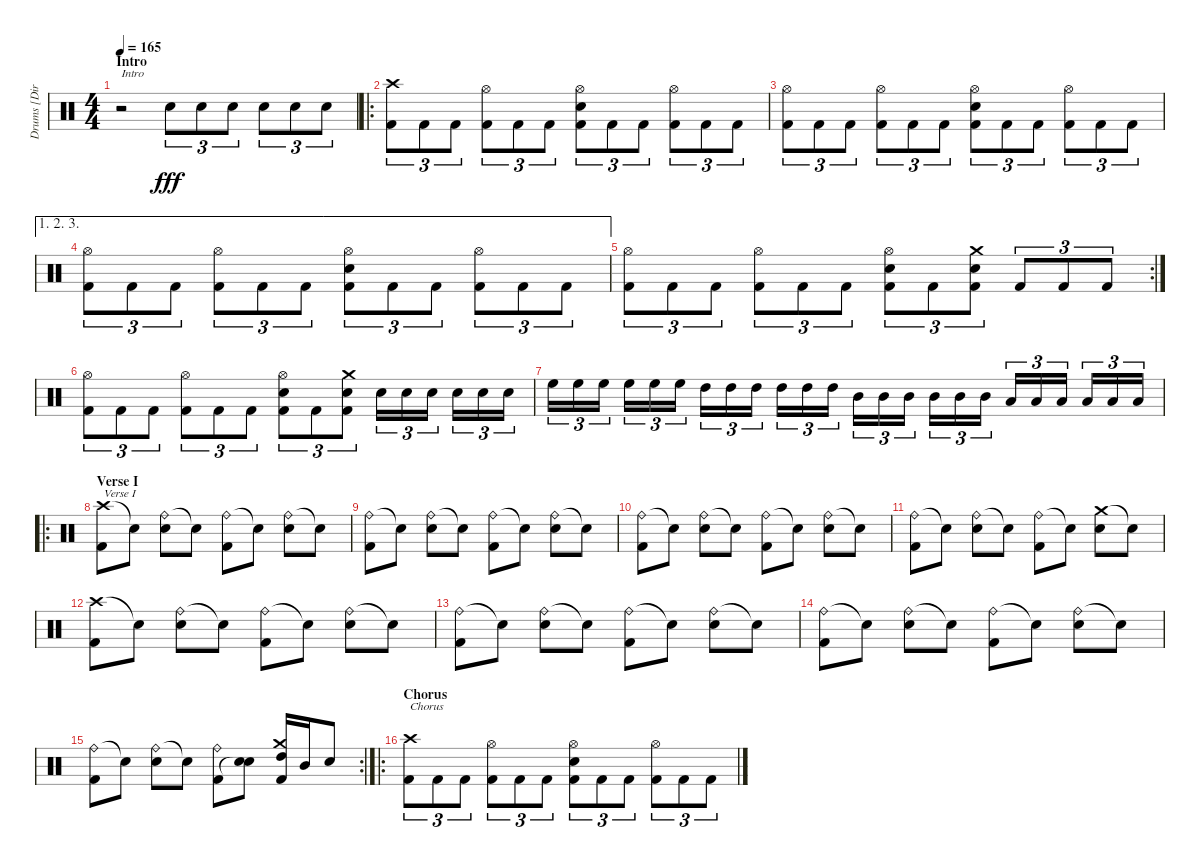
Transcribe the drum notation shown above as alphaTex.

\track ("Drums [Dirge Rep]" "Drums [Dir") {instrument percussion}
\staff {score}
\articulation defaults
\ts (4 4)
\section ("" "Intro")
\tempo 165
\clef neutral
\ks c
r.2{txt "Intro" dy fff} "Electric Snare (hit)".8{tu (3 2)} "Electric Snare (hit)".8{tu (3 2)} "Electric Snare (hit)".8{tu (3 2)} "Electric Snare (hit)".8{tu (3 2)} "Electric Snare (hit)".8{tu (3 2)} "Electric Snare (hit)".8{tu (3 2)} |
\ro
("Crash high (hit)" "Kick (hit) 2").8{tu (3 2)} "Kick (hit) 2".8{tu (3 2)} "Kick (hit) 2".8{tu (3 2)} ("Hi-Hat (open)" "Kick (hit) 2").8{tu (3 2)} "Kick (hit) 2".8{tu (3 2)} "Kick (hit) 2".8{tu (3 2)} ("Hi-Hat (open)" "Electric Snare (hit)" "Kick (hit) 2").8{tu (3 2)} "Kick (hit) 2".8{tu (3 2)} "Kick (hit) 2".8{tu (3 2)} ("Hi-Hat (open)" "Kick (hit) 2").8{tu (3 2)} "Kick (hit) 2".8{tu (3 2)} "Kick (hit) 2".8{tu (3 2)} |
("Hi-Hat (open)" "Kick (hit) 2").8{tu (3 2)} "Kick (hit) 2".8{tu (3 2)} "Kick (hit) 2".8{tu (3 2)} ("Hi-Hat (open)" "Kick (hit) 2").8{tu (3 2)} "Kick (hit) 2".8{tu (3 2)} "Kick (hit) 2".8{tu (3 2)} ("Hi-Hat (open)" "Electric Snare (hit)" "Kick (hit) 2").8{tu (3 2)} "Kick (hit) 2".8{tu (3 2)} "Kick (hit) 2".8{tu (3 2)} ("Hi-Hat (open)" "Kick (hit) 2").8{tu (3 2)} "Kick (hit) 2".8{tu (3 2)} "Kick (hit) 2".8{tu (3 2)} |
\ae (1 2 3)
("Hi-Hat (open)" "Kick (hit) 2").8{tu (3 2)} "Kick (hit) 2".8{tu (3 2)} "Kick (hit) 2".8{tu (3 2)} ("Hi-Hat (open)" "Kick (hit) 2").8{tu (3 2)} "Kick (hit) 2".8{tu (3 2)} "Kick (hit) 2".8{tu (3 2)} ("Hi-Hat (open)" "Electric Snare (hit)" "Kick (hit) 2").8{tu (3 2)} "Kick (hit) 2".8{tu (3 2)} "Kick (hit) 2".8{tu (3 2)} ("Hi-Hat (open)" "Kick (hit) 2").8{tu (3 2)} "Kick (hit) 2".8{tu (3 2)} "Kick (hit) 2".8{tu (3 2)} |
\rc 2
("Hi-Hat (open)" "Kick (hit) 2").8{tu (3 2)} "Kick (hit) 2".8{tu (3 2)} "Kick (hit) 2".8{tu (3 2)} ("Hi-Hat (open)" "Kick (hit) 2").8{tu (3 2)} "Kick (hit) 2".8{tu (3 2)} "Kick (hit) 2".8{tu (3 2)} ("Hi-Hat (open)" "Electric Snare (hit)" "Kick (hit) 2").8{tu (3 2)} "Kick (hit) 2".8{tu (3 2)} ("Crash medium (hit)" "Electric Snare (hit)" "Kick (hit) 2").8{tu (3 2)} "Kick (hit) 2".8{tu (3 2)} "Kick (hit) 2".8{tu (3 2)} "Kick (hit) 2".8{tu (3 2)} |
("Hi-Hat (open)" "Kick (hit) 2").8{tu (3 2)} "Kick (hit) 2".8{tu (3 2)} "Kick (hit) 2".8{tu (3 2)} ("Hi-Hat (open)" "Kick (hit) 2").8{tu (3 2)} "Kick (hit) 2".8{tu (3 2)} "Kick (hit) 2".8{tu (3 2)} ("Hi-Hat (open)" "Electric Snare (hit)" "Kick (hit) 2").8{tu (3 2)} "Kick (hit) 2".8{tu (3 2)} ("Crash medium (hit)" "Electric Snare (hit)" "Kick (hit) 2").8{tu (3 2)} "Electric Snare (hit)".16{tu (3 2)} "Electric Snare (hit)".16{tu (3 2)} "Electric Snare (hit)".16{tu (3 2)} "Electric Snare (hit)".16{tu (3 2)} "Electric Snare (hit)".16{tu (3 2)} "Electric Snare (hit)".16{tu (3 2)} |
"High Floor Tom (hit)".16{tu (3 2)} "High Floor Tom (hit)".16{tu (3 2)} "High Floor Tom (hit)".16{tu (3 2)} "High Floor Tom (hit)".16{tu (3 2)} "High Floor Tom (hit)".16{tu (3 2)} "High Floor Tom (hit)".16{tu (3 2)} "High Tom (hit)".16{tu (3 2)} "High Tom (hit)".16{tu (3 2)} "High Tom (hit)".16{tu (3 2)} "High Tom (hit)".16{tu (3 2)} "High Tom (hit)".16{tu (3 2)} "High Tom (hit)".16{tu (3 2)} "Mid Tom (hit)".16{tu (3 2)} "Mid Tom (hit)".16{tu (3 2)} "Mid Tom (hit)".16{tu (3 2)} "Mid Tom (hit)".16{tu (3 2)} "Mid Tom (hit)".16{tu (3 2)} "Mid Tom (hit)".16{tu (3 2)} "Low Tom (hit)".16{tu (3 2)} "Low Tom (hit)".16{tu (3 2)} "Low Tom (hit)".16{tu (3 2)} "Low Tom (hit)".16{tu (3 2)} "Low Tom (hit)".16{tu (3 2)} "Low Tom (hit)".16{tu (3 2)} |
\ro
\section ("" "Verse I")
("Crash high (hit)" "Kick (hit) 2").8{txt "Verse I"} "Snare (hit)"{t}.8 ("Ride (bell)" "Electric Snare (hit)").8 "Snare (hit)"{t}.8 ("Ride (bell)" "Kick (hit) 2").8 "Snare (hit)"{t}.8 ("Ride (bell)" "Electric Snare (hit)").8 "Snare (hit)"{t}.8 |
("Ride (bell)" "Kick (hit) 2").8 "Snare (hit)"{t}.8 ("Ride (bell)" "Electric Snare (hit)").8 "Snare (hit)"{t}.8 ("Ride (bell)" "Kick (hit) 2").8 "Snare (hit)"{t}.8 ("Ride (bell)" "Electric Snare (hit)").8 "Snare (hit)"{t}.8 |
("Ride (bell)" "Kick (hit) 2").8 "Snare (hit)"{t}.8 ("Ride (bell)" "Electric Snare (hit)").8 "Snare (hit)"{t}.8 ("Ride (bell)" "Kick (hit) 2").8 "Snare (hit)"{t}.8 ("Ride (bell)" "Electric Snare (hit)").8 "Snare (hit)"{t}.8 |
("Ride (bell)" "Kick (hit) 2").8 "Snare (hit)"{t}.8 ("Ride (bell)" "Electric Snare (hit)").8 "Snare (hit)"{t}.8 ("Ride (bell)" "Kick (hit) 2").8 "Snare (hit)"{t}.8 ("Crash medium (hit)" "Electric Snare (hit)").8 "Snare (hit)"{t}.8 |
("Crash high (hit)" "Kick (hit) 2").8 "Snare (hit)"{t}.8 ("Ride (bell)" "Electric Snare (hit)").8 "Snare (hit)"{t}.8 ("Ride (bell)" "Kick (hit) 2").8 "Snare (hit)"{t}.8 ("Ride (bell)" "Electric Snare (hit)").8 "Snare (hit)"{t}.8 |
("Ride (bell)" "Kick (hit) 2").8 "Snare (hit)"{t}.8 ("Ride (bell)" "Electric Snare (hit)").8 "Snare (hit)"{t}.8 ("Ride (bell)" "Kick (hit) 2").8 "Snare (hit)"{t}.8 ("Ride (bell)" "Electric Snare (hit)").8 "Snare (hit)"{t}.8 |
("Ride (bell)" "Kick (hit) 2").8 "Snare (hit)"{t}.8 ("Ride (bell)" "Electric Snare (hit)").8 "Snare (hit)"{t}.8 ("Ride (bell)" "Kick (hit) 2").8 "Snare (hit)"{t}.8 ("Ride (bell)" "Electric Snare (hit)").8 "Snare (hit)"{t}.8 |
\rc 2
("Ride (bell)" "Kick (hit) 2").8 "Snare (hit)"{t}.8 ("Ride (bell)" "Electric Snare (hit)").8 "Snare (hit)"{t}.8 ("Ride (bell)" "Kick (hit) 2").8 ("Electric Snare (hit)" "Snare (hit)"{t}).8 ("Crash medium (hit)" "High Tom (hit)" "Kick (hit) 2").16 "Mid Tom (hit)".16 "Electric Snare (hit)".8 |
\ro
\section ("" "Chorus")
("Crash high (hit)" "Kick (hit) 2").8{tu (3 2) txt "Chorus"} "Kick (hit) 2".8{tu (3 2)} "Kick (hit) 2".8{tu (3 2)} ("Hi-Hat (open)" "Kick (hit) 2").8{tu (3 2)} "Kick (hit) 2".8{tu (3 2)} "Kick (hit) 2".8{tu (3 2)} ("Hi-Hat (open)" "Electric Snare (hit)" "Kick (hit) 2").8{tu (3 2)} "Kick (hit) 2".8{tu (3 2)} "Kick (hit) 2".8{tu (3 2)} ("Hi-Hat (open)" "Kick (hit) 2").8{tu (3 2)} "Kick (hit) 2".8{tu (3 2)} "Kick (hit) 2".8{tu (3 2)}
